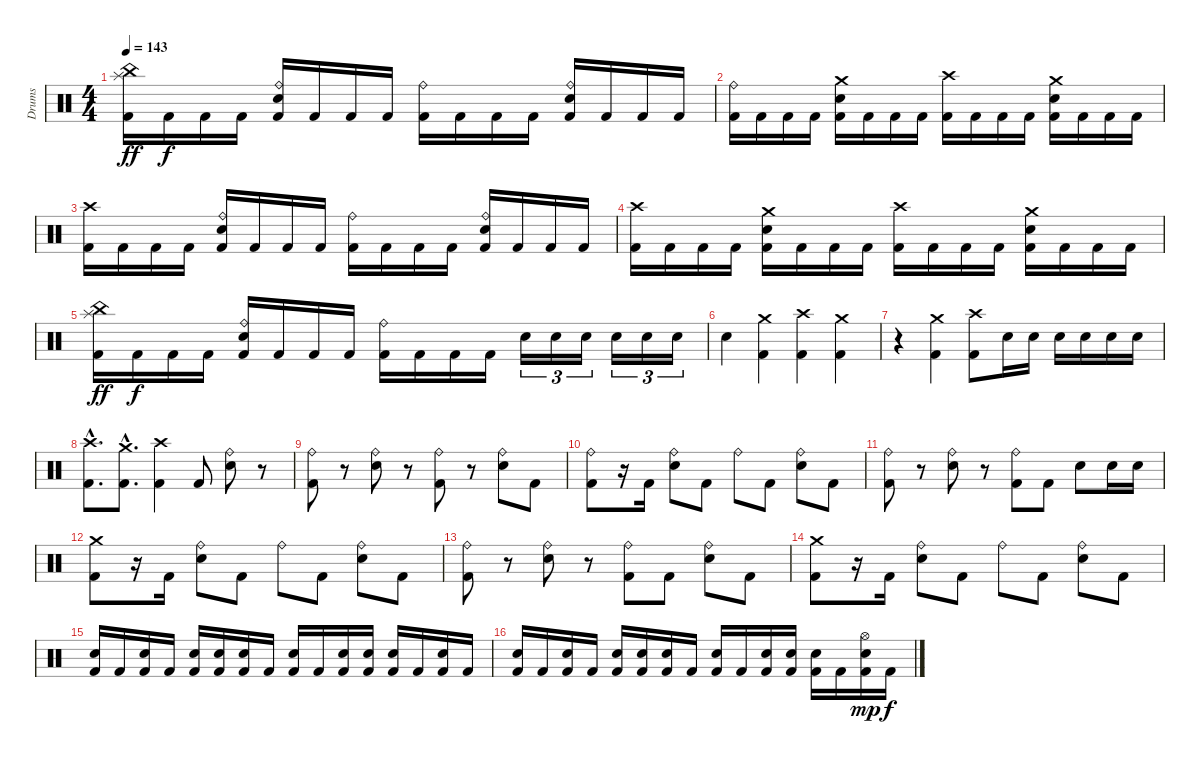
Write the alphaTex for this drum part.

\track ("Drums" "Drums") {instrument percussion}
\staff {score}
\articulation defaults
\ts (4 4)
\tempo 143
\clef neutral
\ks c
("China (hit)" "Splash (hit)" "Kick (hit) 2").16{dy ff} "Kick (hit) 2".16{dy f} "Kick (hit) 2".16 "Kick (hit) 2".16 ("Ride (bell)" "Electric Snare (hit)" "Kick (hit) 2").16 "Kick (hit) 2".16 "Kick (hit) 2".16 "Kick (hit) 2".16 ("Ride (bell)" "Kick (hit) 2").16 "Kick (hit) 2".16 "Kick (hit) 2".16 "Kick (hit) 2".16 ("Ride (bell)" "Electric Snare (hit)" "Kick (hit) 2").16 "Kick (hit) 2".16 "Kick (hit) 2".16 "Kick (hit) 2".16 |
("Ride (bell)" "Kick (hit) 2").16 "Kick (hit) 2".16 "Kick (hit) 2".16 "Kick (hit) 2".16 ("Crash medium (hit)" "Electric Snare (hit)" "Kick (hit) 2").16 "Kick (hit) 2".16 "Kick (hit) 2".16 "Kick (hit) 2".16 ("Crash high (hit)" "Kick (hit) 2").16 "Kick (hit) 2".16 "Kick (hit) 2".16 "Kick (hit) 2".16 ("Crash medium (hit)" "Electric Snare (hit)" "Kick (hit) 2").16 "Kick (hit) 2".16 "Kick (hit) 2".16 "Kick (hit) 2".16 |
("Crash high (hit)" "Kick (hit) 2").16 "Kick (hit) 2".16 "Kick (hit) 2".16 "Kick (hit) 2".16 ("Ride (bell)" "Electric Snare (hit)" "Kick (hit) 2").16 "Kick (hit) 2".16 "Kick (hit) 2".16 "Kick (hit) 2".16 ("Ride (bell)" "Kick (hit) 2").16 "Kick (hit) 2".16 "Kick (hit) 2".16 "Kick (hit) 2".16 ("Ride (bell)" "Electric Snare (hit)" "Kick (hit) 2").16 "Kick (hit) 2".16 "Kick (hit) 2".16 "Kick (hit) 2".16 |
("Crash high (hit)" "Kick (hit) 2").16 "Kick (hit) 2".16 "Kick (hit) 2".16 "Kick (hit) 2".16 ("Crash medium (hit)" "Electric Snare (hit)" "Kick (hit) 2").16 "Kick (hit) 2".16 "Kick (hit) 2".16 "Kick (hit) 2".16 ("Crash high (hit)" "Kick (hit) 2").16 "Kick (hit) 2".16 "Kick (hit) 2".16 "Kick (hit) 2".16 ("Crash medium (hit)" "Electric Snare (hit)" "Kick (hit) 2").16 "Kick (hit) 2".16 "Kick (hit) 2".16 "Kick (hit) 2".16 |
("China (hit)" "Splash (hit)" "Kick (hit) 2").16{dy ff} "Kick (hit) 2".16{dy f} "Kick (hit) 2".16 "Kick (hit) 2".16 ("Ride (bell)" "Electric Snare (hit)" "Kick (hit) 2").16 "Kick (hit) 2".16 "Kick (hit) 2".16 "Kick (hit) 2".16 ("Ride (bell)" "Kick (hit) 2").16 "Kick (hit) 2".16 "Kick (hit) 2".16 "Kick (hit) 2".16 "Electric Snare (hit)".16{tu (3 2)} "Electric Snare (hit)".16{tu (3 2)} "Electric Snare (hit)".16{tu (3 2)} "Electric Snare (hit)".16{tu (3 2)} "Electric Snare (hit)".16{tu (3 2)} "Electric Snare (hit)".16{tu (3 2)} |
"Electric Snare (hit)".4 ("Crash medium (hit)" "Kick (hit) 2").4 ("Crash high (hit)" "Kick (hit) 2").4 ("Crash medium (hit)" "Kick (hit) 2").4 |
r.4 ("Crash medium (hit)" "Kick (hit) 2").4 ("Crash high (hit)" "Kick (hit) 2").8 "Electric Snare (hit)".16 "Electric Snare (hit)".16 "Electric Snare (hit)".16 "Electric Snare (hit)".16 "Electric Snare (hit)".16 "Electric Snare (hit)".16 |
("Crash high (hit)"{hac} "Kick (hit) 2"{hac}).8{d} ("Crash medium (hit)"{hac} "Kick (hit) 2"{hac}).8{d} ("Crash high (hit)" "Kick (hit) 2").4 "Kick (hit) 2".8 ("Ride (bell)" "Electric Snare (hit)").8 r.8 |
("Ride (bell)" "Kick (hit) 2").8 r.8 ("Ride (bell)" "Electric Snare (hit)").8 r.8 ("Ride (bell)" "Kick (hit) 2").8 r.8 ("Ride (bell)" "Electric Snare (hit)").8 "Kick (hit) 2".8 |
("Ride (bell)" "Kick (hit) 2").8 r.16 "Kick (hit) 2".16 ("Ride (bell)" "Electric Snare (hit)").8 "Kick (hit) 2".8 "Ride (bell)".8 "Kick (hit) 2".8 ("Ride (bell)" "Electric Snare (hit)").8 "Kick (hit) 2".8 |
("Ride (bell)" "Kick (hit) 2").8 r.8 ("Ride (bell)" "Electric Snare (hit)").8 r.8 ("Ride (bell)" "Kick (hit) 2").8 "Kick (hit) 2".8 "Electric Snare (hit)".8 "Electric Snare (hit)".16 "Electric Snare (hit)".16 |
("Crash medium (hit)" "Kick (hit) 2").8 r.16 "Kick (hit) 2".16 ("Ride (bell)" "Electric Snare (hit)").8 "Kick (hit) 2".8 "Ride (bell)".8 "Kick (hit) 2".8 ("Ride (bell)" "Electric Snare (hit)").8 "Kick (hit) 2".8 |
("Ride (bell)" "Kick (hit) 2").8 r.8 ("Ride (bell)" "Electric Snare (hit)").8 r.8 ("Ride (bell)" "Kick (hit) 2").8 "Kick (hit) 2".8 ("Ride (bell)" "Electric Snare (hit)").8 "Kick (hit) 2".8 |
("Crash medium (hit)" "Kick (hit) 2").8 r.16 "Kick (hit) 2".16 ("Ride (bell)" "Electric Snare (hit)").8 "Kick (hit) 2".8 "Ride (bell)".8 "Kick (hit) 2".8 ("Ride (bell)" "Electric Snare (hit)").8 "Kick (hit) 2".8 |
("Electric Snare (hit)" "Kick (hit) 2").16 "Kick (hit) 2".16 ("Electric Snare (hit)" "Kick (hit) 2").16 "Kick (hit) 2".16 ("Electric Snare (hit)" "Kick (hit) 2").16 ("Electric Snare (hit)" "Kick (hit) 2").16 ("Electric Snare (hit)" "Kick (hit) 2").16 "Kick (hit) 2".16 ("Electric Snare (hit)" "Kick (hit) 2").16 "Kick (hit) 2".16 ("Electric Snare (hit)" "Kick (hit) 2").16 ("Electric Snare (hit)" "Kick (hit) 2").16 ("Electric Snare (hit)" "Kick (hit) 2").16 "Kick (hit) 2".16 ("Electric Snare (hit)" "Kick (hit) 2").16 "Kick (hit) 2".16 |
("Electric Snare (hit)" "Kick (hit) 2").16 "Kick (hit) 2".16 ("Electric Snare (hit)" "Kick (hit) 2").16 "Kick (hit) 2".16 ("Electric Snare (hit)" "Kick (hit) 2").16 ("Electric Snare (hit)" "Kick (hit) 2").16 ("Electric Snare (hit)" "Kick (hit) 2").16 "Kick (hit) 2".16 ("Electric Snare (hit)" "Kick (hit) 2").16 "Kick (hit) 2".16 ("Electric Snare (hit)" "Kick (hit) 2").16 ("Electric Snare (hit)" "Kick (hit) 2").16 ("Electric Snare (hit)" "Kick (hit) 2").16 "Kick (hit) 2".16 ("Hi-Hat (open)" "Electric Snare (hit)" "Kick (hit) 2").16{dy mp} "Kick (hit) 2".16{dy f}
